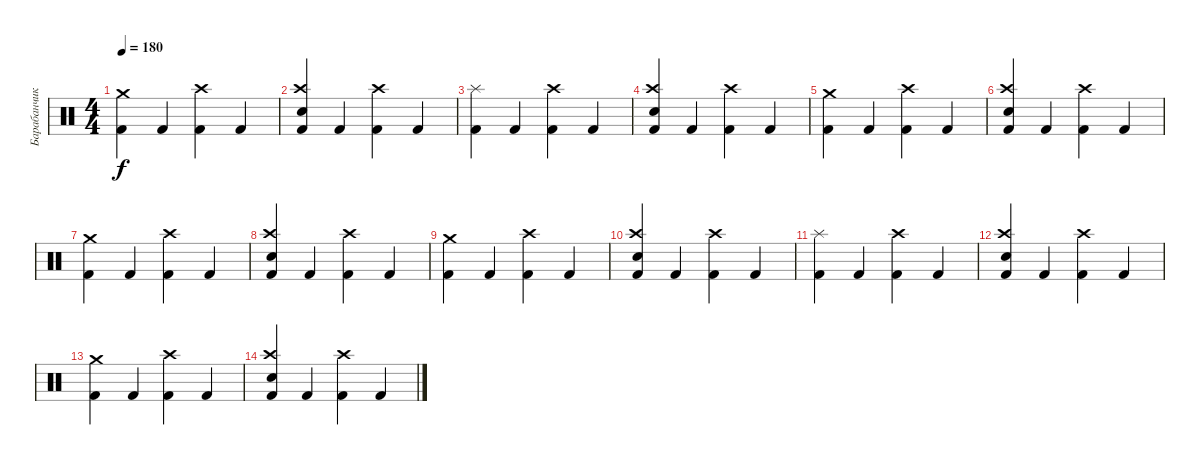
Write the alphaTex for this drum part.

\track ("Барабанчики" "Барабанчик") {instrument percussion}
\staff {score}
\articulation defaults
\ts (4 4)
\tempo 180
\clef neutral
\ks c
("Crash medium (hit)" "Kick (hit) 2").4{dy f} "Kick (hit) 2".4 ("Crash high (hit)" "Kick (hit) 2").4 "Kick (hit) 2".4 |
("Crash high (hit)" "Electric Snare (hit)" "Kick (hit) 2").4 "Kick (hit) 2".4 ("Crash high (hit)" "Kick (hit) 2").4 "Kick (hit) 2".4 |
("Splash (hit)" "Kick (hit) 2").4 "Kick (hit) 2".4 ("Crash high (hit)" "Kick (hit) 2").4 "Kick (hit) 2".4 |
("Crash high (hit)" "Electric Snare (hit)" "Kick (hit) 2").4 "Kick (hit) 2".4 ("Crash high (hit)" "Kick (hit) 2").4 "Kick (hit) 2".4 |
("Crash medium (hit)" "Kick (hit) 2").4 "Kick (hit) 2".4 ("Crash high (hit)" "Kick (hit) 2").4 "Kick (hit) 2".4 |
("Crash high (hit)" "Electric Snare (hit)" "Kick (hit) 2").4 "Kick (hit) 2".4 ("Crash high (hit)" "Kick (hit) 2").4 "Kick (hit) 2".4 |
("Crash medium (hit)" "Kick (hit) 2").4 "Kick (hit) 2".4 ("Crash high (hit)" "Kick (hit) 2").4 "Kick (hit) 2".4 |
("Crash high (hit)" "Electric Snare (hit)" "Kick (hit) 2").4 "Kick (hit) 2".4 ("Crash high (hit)" "Kick (hit) 2").4 "Kick (hit) 2".4 |
("Crash medium (hit)" "Kick (hit) 2").4 "Kick (hit) 2".4 ("Crash high (hit)" "Kick (hit) 2").4 "Kick (hit) 2".4 |
("Crash high (hit)" "Electric Snare (hit)" "Kick (hit) 2").4 "Kick (hit) 2".4 ("Crash high (hit)" "Kick (hit) 2").4 "Kick (hit) 2".4 |
("Splash (hit)" "Kick (hit) 2").4 "Kick (hit) 2".4 ("Crash high (hit)" "Kick (hit) 2").4 "Kick (hit) 2".4 |
("Crash high (hit)" "Electric Snare (hit)" "Kick (hit) 2").4 "Kick (hit) 2".4 ("Crash high (hit)" "Kick (hit) 2").4 "Kick (hit) 2".4 |
("Crash medium (hit)" "Kick (hit) 2").4 "Kick (hit) 2".4 ("Crash high (hit)" "Kick (hit) 2").4 "Kick (hit) 2".4 |
("Crash high (hit)" "Electric Snare (hit)" "Kick (hit) 2").4 "Kick (hit) 2".4 ("Crash high (hit)" "Kick (hit) 2").4 "Kick (hit) 2".4
